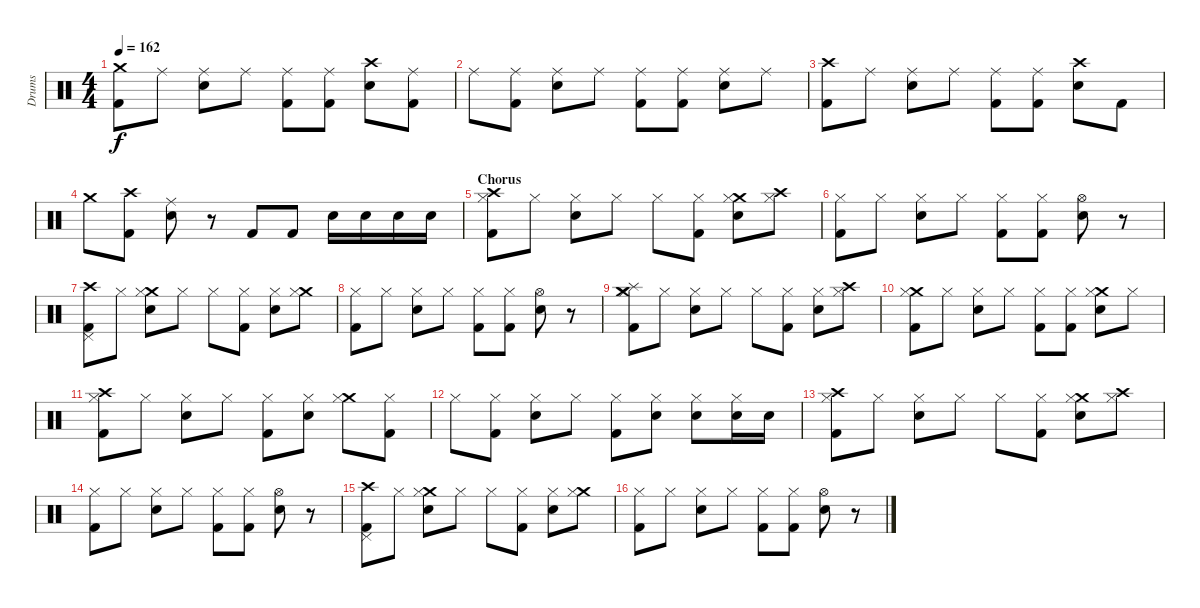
\track ("Drums" "Drums") {instrument percussion}
\staff {score}
\articulation defaults
\ts (4 4)
\tempo 162
\clef neutral
\ks c
("Crash medium (hit)" "Kick (hit) 2").8{dy f} "Ride (middle)".8 ("Ride (middle)" "Electric Snare (hit)").8 "Ride (middle)".8 ("Ride (middle)" "Kick (hit) 2").8 ("Ride (middle)" "Kick (hit) 2").8 ("Crash high (hit)" "Electric Snare (hit)").8 ("Ride (middle)" "Kick (hit) 2").8 |
"Ride (middle)".8 ("Ride (middle)" "Kick (hit) 2").8 ("Ride (middle)" "Electric Snare (hit)").8 "Ride (middle)".8 ("Ride (middle)" "Kick (hit) 2").8 ("Ride (middle)" "Kick (hit) 2").8 ("Ride (middle)" "Electric Snare (hit)").8 "Ride (middle)".8 |
("Crash high (hit)" "Kick (hit) 2").8 "Ride (middle)".8 ("Ride (middle)" "Electric Snare (hit)").8 "Ride (middle)".8 ("Ride (middle)" "Kick (hit) 2").8 ("Ride (middle)" "Kick (hit) 2").8 ("Crash high (hit)" "Electric Snare (hit)").8 "Kick (hit) 2".8 |
"Crash medium (hit)".8 ("Crash high (hit)" "Kick (hit) 2").8 ("Ride (middle)" "Electric Snare (hit)").8 r.8 "Kick (hit) 2".8 "Kick (hit) 2".8 "Electric Snare (hit)".16 "Electric Snare (hit)".16 "Electric Snare (hit)".16 "Electric Snare (hit)".16 |
\section ("" "Chorus")
("Crash high (hit)" "Hi-Hat (closed)" "Kick (hit) 2").8 "Hi-Hat (closed)".8 ("Hi-Hat (closed)" "Electric Snare (hit)").8 "Hi-Hat (closed)".8 "Hi-Hat (closed)".8 ("Hi-Hat (closed)" "Kick (hit) 2").8 ("Crash medium (hit)" "Hi-Hat (closed)" "Electric Snare (hit)").8 ("Crash high (hit)" "Hi-Hat (closed)").8 |
("Hi-Hat (closed)" "Kick (hit) 2").8 "Hi-Hat (closed)".8 ("Hi-Hat (closed)" "Electric Snare (hit)").8 "Hi-Hat (closed)".8 ("Hi-Hat (closed)" "Kick (hit) 2").8 ("Hi-Hat (closed)" "Kick (hit) 2").8 ("Hi-Hat (open)" "Electric Snare (hit)").8 r.8 |
("Crash high (hit)" "Pedal Hi-Hat (hit)" "Kick (hit) 2").8 "Hi-Hat (closed)".8 ("Crash medium (hit)" "Hi-Hat (closed)" "Electric Snare (hit)").8 "Hi-Hat (closed)".8 "Hi-Hat (closed)".8 ("Hi-Hat (closed)" "Kick (hit) 2").8 ("Hi-Hat (closed)" "Electric Snare (hit)").8 ("Crash medium (hit)" "Hi-Hat (closed)").8 |
("Hi-Hat (closed)" "Kick (hit) 2").8 "Hi-Hat (closed)".8 ("Hi-Hat (closed)" "Electric Snare (hit)").8 "Hi-Hat (closed)".8 ("Hi-Hat (closed)" "Kick (hit) 2").8 ("Hi-Hat (closed)" "Kick (hit) 2").8 ("Hi-Hat (open)" "Electric Snare (hit)").8 r.8 |
("Crash medium (hit)" "Hi-Hat (closed)" "Splash (hit)" "Kick (hit) 2").8 "Hi-Hat (closed)".8 ("Hi-Hat (closed)" "Electric Snare (hit)").8 "Hi-Hat (closed)".8 "Hi-Hat (closed)".8 ("Hi-Hat (closed)" "Kick (hit) 2").8 ("Hi-Hat (closed)" "Electric Snare (hit)").8 ("Crash high (hit)" "Hi-Hat (closed)").8 |
("Crash medium (hit)" "Hi-Hat (closed)" "Kick (hit) 2").8 "Hi-Hat (closed)".8 ("Hi-Hat (closed)" "Electric Snare (hit)").8 "Hi-Hat (closed)".8 ("Hi-Hat (closed)" "Kick (hit) 2").8 ("Hi-Hat (closed)" "Kick (hit) 2").8 ("Crash medium (hit)" "Hi-Hat (closed)" "Electric Snare (hit)").8 "Hi-Hat (closed)".8 |
("Crash high (hit)" "Hi-Hat (closed)" "Kick (hit) 2").8 "Hi-Hat (closed)".8 ("Hi-Hat (closed)" "Electric Snare (hit)").8 "Hi-Hat (closed)".8 ("Hi-Hat (closed)" "Kick (hit) 2").8 ("Hi-Hat (closed)" "Electric Snare (hit)").8 ("Crash medium (hit)" "Hi-Hat (closed)").8 ("Hi-Hat (closed)" "Kick (hit) 2").8 |
"Hi-Hat (closed)".8 ("Hi-Hat (closed)" "Kick (hit) 2").8 ("Hi-Hat (closed)" "Electric Snare (hit)").8 "Hi-Hat (closed)".8 ("Hi-Hat (closed)" "Kick (hit) 2").8 ("Hi-Hat (closed)" "Electric Snare (hit)").8 ("Hi-Hat (closed)" "Electric Snare (hit)").8 ("Hi-Hat (closed)" "Electric Snare (hit)").16 "Electric Snare (hit)".16 |
("Crash high (hit)" "Hi-Hat (closed)" "Kick (hit) 2").8 "Hi-Hat (closed)".8 ("Hi-Hat (closed)" "Electric Snare (hit)").8 "Hi-Hat (closed)".8 "Hi-Hat (closed)".8 ("Hi-Hat (closed)" "Kick (hit) 2").8 ("Crash medium (hit)" "Hi-Hat (closed)" "Electric Snare (hit)").8 ("Crash high (hit)" "Hi-Hat (closed)").8 |
("Hi-Hat (closed)" "Kick (hit) 2").8 "Hi-Hat (closed)".8 ("Hi-Hat (closed)" "Electric Snare (hit)").8 "Hi-Hat (closed)".8 ("Hi-Hat (closed)" "Kick (hit) 2").8 ("Hi-Hat (closed)" "Kick (hit) 2").8 ("Hi-Hat (open)" "Electric Snare (hit)").8 r.8 |
("Crash high (hit)" "Pedal Hi-Hat (hit)" "Kick (hit) 2").8 "Hi-Hat (closed)".8 ("Crash medium (hit)" "Hi-Hat (closed)" "Electric Snare (hit)").8 "Hi-Hat (closed)".8 "Hi-Hat (closed)".8 ("Hi-Hat (closed)" "Kick (hit) 2").8 ("Hi-Hat (closed)" "Electric Snare (hit)").8 ("Crash medium (hit)" "Hi-Hat (closed)").8 |
("Hi-Hat (closed)" "Kick (hit) 2").8 "Hi-Hat (closed)".8 ("Hi-Hat (closed)" "Electric Snare (hit)").8 "Hi-Hat (closed)".8 ("Hi-Hat (closed)" "Kick (hit) 2").8 ("Hi-Hat (closed)" "Kick (hit) 2").8 ("Hi-Hat (open)" "Electric Snare (hit)").8 r.8
